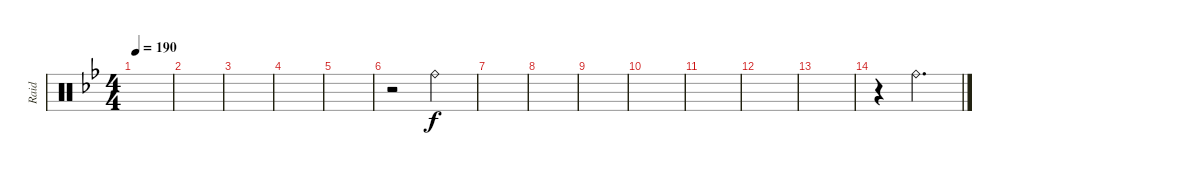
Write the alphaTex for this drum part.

\track ("Raid" "Raid") {instrument percussion}
\staff {score}
\articulation defaults
\ts (4 4)
\tempo 190
\clef neutral
\ks bb
|
|
|
|
|
r.2 "Ride (bell)".2 |
|
|
|
|
|
|
|
r.4 "Ride (bell)".2{d}
